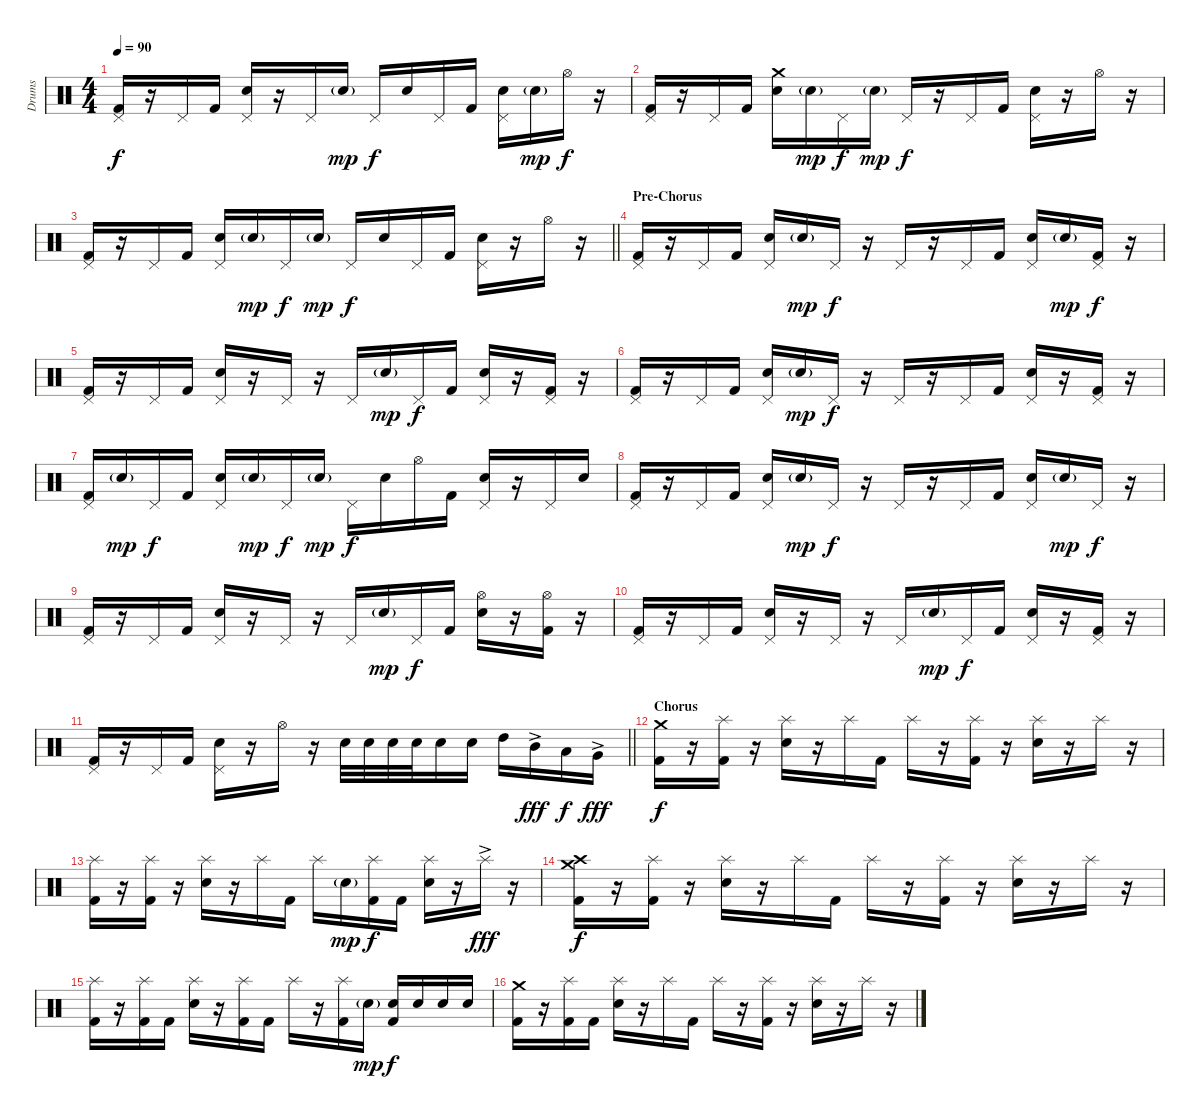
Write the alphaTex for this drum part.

\track ("Drums" "Drums") {instrument percussion}
\staff {score}
\articulation defaults
\ts (4 4)
\tempo 90
\clef neutral
\ks c
("Pedal Hi-Hat (hit)" "Kick (hit) 2").16{dy f} r.16 "Pedal Hi-Hat (hit)".16 "Kick (hit) 2".16 ("Pedal Hi-Hat (hit)" "Electric Snare (hit)").16 r.16 "Pedal Hi-Hat (hit)".16 "Electric Snare (hit)"{g}.16{dy mp} "Pedal Hi-Hat (hit)".16{dy f} "Electric Snare (hit)".16 "Pedal Hi-Hat (hit)".16 "Kick (hit) 2".16 ("Pedal Hi-Hat (hit)" "Electric Snare (hit)").16 "Electric Snare (hit)"{g}.16{dy mp} "Hi-Hat (open)".16{dy f} r.16 |
("Pedal Hi-Hat (hit)" "Kick (hit) 2").16 r.16 "Pedal Hi-Hat (hit)".16 "Kick (hit) 2".16 ("Crash medium (hit)" "Electric Snare (hit)").16 "Electric Snare (hit)"{g}.16{dy mp} "Pedal Hi-Hat (hit)".16{dy f} "Electric Snare (hit)"{g}.16{dy mp} "Pedal Hi-Hat (hit)".16{dy f} r.16 "Pedal Hi-Hat (hit)".16 "Kick (hit) 2".16 ("Pedal Hi-Hat (hit)" "Electric Snare (hit)").16 r.16 "Hi-Hat (open)".16 r.16 |
\barLineRight lightlight
("Pedal Hi-Hat (hit)" "Kick (hit) 2").16 r.16 "Pedal Hi-Hat (hit)".16 "Kick (hit) 2".16 ("Pedal Hi-Hat (hit)" "Electric Snare (hit)").16 "Electric Snare (hit)"{g}.16{dy mp} "Pedal Hi-Hat (hit)".16{dy f} "Electric Snare (hit)"{g}.16{dy mp} "Pedal Hi-Hat (hit)".16{dy f} "Electric Snare (hit)".16 "Pedal Hi-Hat (hit)".16 "Kick (hit) 2".16 ("Pedal Hi-Hat (hit)" "Electric Snare (hit)").16 r.16 "Hi-Hat (open)".16 r.16 |
\section ("" "Pre-Chorus")
("Pedal Hi-Hat (hit)" "Kick (hit) 2").16 r.16 "Pedal Hi-Hat (hit)".16 "Kick (hit) 2".16 ("Pedal Hi-Hat (hit)" "Electric Snare (hit)").16 "Electric Snare (hit)"{g}.16{dy mp} "Pedal Hi-Hat (hit)".16{dy f} r.16 "Pedal Hi-Hat (hit)".16 r.16 "Pedal Hi-Hat (hit)".16 "Kick (hit) 2".16 ("Pedal Hi-Hat (hit)" "Electric Snare (hit)").16 "Electric Snare (hit)"{g}.16{dy mp} ("Pedal Hi-Hat (hit)" "Kick (hit) 2").16{dy f} r.16 |
("Pedal Hi-Hat (hit)" "Kick (hit) 2").16 r.16 "Pedal Hi-Hat (hit)".16 "Kick (hit) 2".16 ("Pedal Hi-Hat (hit)" "Electric Snare (hit)").16 r.16 "Pedal Hi-Hat (hit)".16 r.16 "Pedal Hi-Hat (hit)".16 "Electric Snare (hit)"{g}.16{dy mp} "Pedal Hi-Hat (hit)".16{dy f} "Kick (hit) 2".16 ("Pedal Hi-Hat (hit)" "Electric Snare (hit)").16 r.16 ("Pedal Hi-Hat (hit)" "Kick (hit) 2").16 r.16 |
("Pedal Hi-Hat (hit)" "Kick (hit) 2").16 r.16 "Pedal Hi-Hat (hit)".16 "Kick (hit) 2".16 ("Pedal Hi-Hat (hit)" "Electric Snare (hit)").16 "Electric Snare (hit)"{g}.16{dy mp} "Pedal Hi-Hat (hit)".16{dy f} r.16 "Pedal Hi-Hat (hit)".16 r.16 "Pedal Hi-Hat (hit)".16 "Kick (hit) 2".16 ("Pedal Hi-Hat (hit)" "Electric Snare (hit)").16 r.16 ("Pedal Hi-Hat (hit)" "Kick (hit) 2").16 r.16 |
("Pedal Hi-Hat (hit)" "Kick (hit) 2").16 "Electric Snare (hit)"{g}.16{dy mp} "Pedal Hi-Hat (hit)".16{dy f} "Kick (hit) 2".16 ("Pedal Hi-Hat (hit)" "Electric Snare (hit)").16 "Electric Snare (hit)"{g}.16{dy mp} "Pedal Hi-Hat (hit)".16{dy f} "Electric Snare (hit)"{g}.16{dy mp} "Pedal Hi-Hat (hit)".16{dy f} "Electric Snare (hit)".16 "Hi-Hat (open)".16 "Kick (hit) 2".16 ("Pedal Hi-Hat (hit)" "Electric Snare (hit)").16 r.16 "Pedal Hi-Hat (hit)".16 "Electric Snare (hit)".16 |
("Pedal Hi-Hat (hit)" "Kick (hit) 2").16 r.16 "Pedal Hi-Hat (hit)".16 "Kick (hit) 2".16 ("Pedal Hi-Hat (hit)" "Electric Snare (hit)").16 "Electric Snare (hit)"{g}.16{dy mp} "Pedal Hi-Hat (hit)".16{dy f} r.16 "Pedal Hi-Hat (hit)".16 r.16 "Pedal Hi-Hat (hit)".16 "Kick (hit) 2".16 ("Pedal Hi-Hat (hit)" "Electric Snare (hit)").16 "Electric Snare (hit)"{g}.16{dy mp} "Pedal Hi-Hat (hit)".16{dy f} r.16 |
("Pedal Hi-Hat (hit)" "Kick (hit) 2").16 r.16 "Pedal Hi-Hat (hit)".16 "Kick (hit) 2".16 ("Pedal Hi-Hat (hit)" "Electric Snare (hit)").16 r.16 "Pedal Hi-Hat (hit)".16 r.16 "Pedal Hi-Hat (hit)".16 "Electric Snare (hit)"{g}.16{dy mp} "Pedal Hi-Hat (hit)".16{dy f} "Kick (hit) 2".16 ("Hi-Hat (open)" "Electric Snare (hit)").16 r.16 ("Hi-Hat (open)" "Kick (hit) 2").16 r.16 |
("Pedal Hi-Hat (hit)" "Kick (hit) 2").16 r.16 "Pedal Hi-Hat (hit)".16 "Kick (hit) 2".16 ("Pedal Hi-Hat (hit)" "Electric Snare (hit)").16 r.16 "Pedal Hi-Hat (hit)".16 r.16 "Pedal Hi-Hat (hit)".16 "Electric Snare (hit)"{g}.16{dy mp} "Pedal Hi-Hat (hit)".16{dy f} "Kick (hit) 2".16 ("Pedal Hi-Hat (hit)" "Electric Snare (hit)").16 r.16 ("Pedal Hi-Hat (hit)" "Kick (hit) 2").16 r.16 |
\barLineRight lightlight
("Pedal Hi-Hat (hit)" "Kick (hit) 2").16 r.16 "Pedal Hi-Hat (hit)".16 "Kick (hit) 2".16 ("Pedal Hi-Hat (hit)" "Electric Snare (hit)").16 r.16 "Hi-Hat (open)".16 r.16 "Electric Snare (hit)".32 "Electric Snare (hit)".32 "Electric Snare (hit)".32 "Electric Snare (hit)".32 "Electric Snare (hit)".16 "Electric Snare (hit)".16 "High Tom (hit)".16 "Mid Tom (hit)"{ac}.16{dy fff} "Low Tom (hit)".16{dy f} "Very Low Tom (hit)"{ac}.16{dy fff} |
\section ("" "Chorus")
("Crash medium (hit)" "Kick (hit) 2").16{dy f} r.16 ("Splash (hit)" "Kick (hit) 2").16 r.16 ("Splash (hit)" "Electric Snare (hit)").16 r.16 "Splash (hit)".16 "Kick (hit) 2".16 "Splash (hit)".16 r.16 ("Splash (hit)" "Kick (hit) 2").16 r.16 ("Splash (hit)" "Electric Snare (hit)").16 r.16 "Splash (hit)".16 r.16 |
("Splash (hit)" "Kick (hit) 2").16 r.16 ("Splash (hit)" "Kick (hit) 2").16 r.16 ("Splash (hit)" "Electric Snare (hit)").16 r.16 "Splash (hit)".16 "Kick (hit) 2".16 "Splash (hit)".16 "Electric Snare (hit)"{g}.16{dy mp} ("Splash (hit)" "Kick (hit) 2").16{dy f} "Kick (hit) 2".16 ("Splash (hit)" "Electric Snare (hit)").16 r.16 "Splash (hit)"{ac}.16{dy fff} r.16 |
("Crash medium (hit)" "Crash high (hit)" "Kick (hit) 2").16{dy f} r.16 ("Splash (hit)" "Kick (hit) 2").16 r.16 ("Splash (hit)" "Electric Snare (hit)").16 r.16 "Splash (hit)".16 "Kick (hit) 2".16 "Splash (hit)".16 r.16 ("Splash (hit)" "Kick (hit) 2").16 r.16 ("Splash (hit)" "Electric Snare (hit)").16 r.16 "Splash (hit)".16 r.16 |
("Splash (hit)" "Kick (hit) 2").16 r.16 ("Splash (hit)" "Kick (hit) 2").16 "Kick (hit) 2".16 ("Splash (hit)" "Electric Snare (hit)").16 r.16 ("Splash (hit)" "Kick (hit) 2").16 "Kick (hit) 2".16 "Splash (hit)".16 r.16 ("Splash (hit)" "Kick (hit) 2").16 "Electric Snare (hit)"{g}.16{dy mp} ("Electric Snare (hit)" "Kick (hit) 2").16{dy f} "Electric Snare (hit)".16 "Electric Snare (hit)".16 "Electric Snare (hit)".16 |
("Crash medium (hit)" "Kick (hit) 2").16 r.16 ("Splash (hit)" "Kick (hit) 2").16 "Kick (hit) 2".16 ("Splash (hit)" "Electric Snare (hit)").16 r.16 "Splash (hit)".16 "Kick (hit) 2".16 "Splash (hit)".16 r.16 ("Splash (hit)" "Kick (hit) 2").16 r.16 ("Splash (hit)" "Electric Snare (hit)").16 r.16 "Splash (hit)".16 r.16
